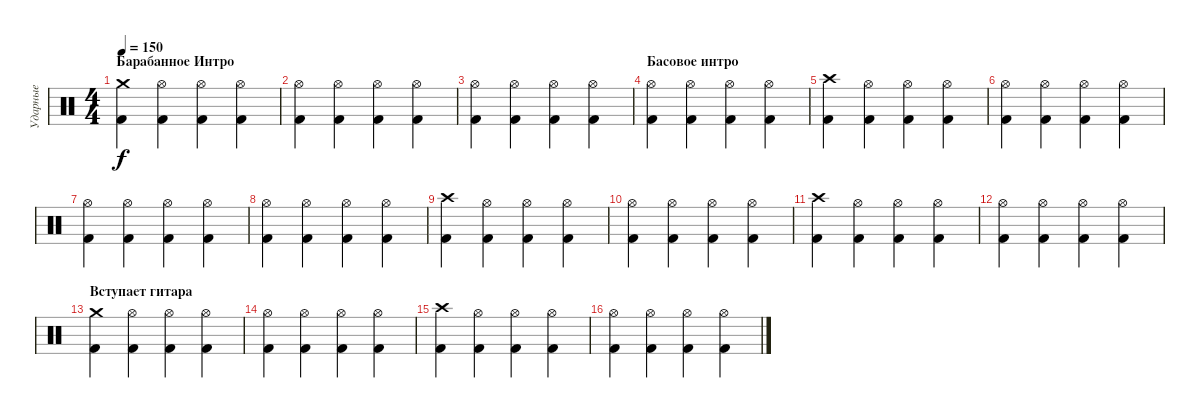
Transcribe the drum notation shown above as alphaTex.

\track ("Ударные" "Ударные") {instrument percussion}
\staff {score}
\articulation defaults
\ts (4 4)
\section ("" "Барабанное Интро")
\tempo 150
\clef neutral
\ks c
("Crash medium (hit)" "Kick (hit) 2").4{dy f} ("Hi-Hat (open)" "Kick (hit) 2").4 ("Hi-Hat (open)" "Kick (hit) 2").4 ("Hi-Hat (open)" "Kick (hit) 2").4 |
("Hi-Hat (open)" "Kick (hit) 2").4 ("Hi-Hat (open)" "Kick (hit) 2").4 ("Hi-Hat (open)" "Kick (hit) 2").4 ("Hi-Hat (open)" "Kick (hit) 2").4 |
("Hi-Hat (open)" "Kick (hit) 2").4 ("Hi-Hat (open)" "Kick (hit) 2").4 ("Hi-Hat (open)" "Kick (hit) 2").4 ("Hi-Hat (open)" "Kick (hit) 2").4 |
\section ("" "Басовое интро")
("Hi-Hat (open)" "Kick (hit) 2").4 ("Hi-Hat (open)" "Kick (hit) 2").4 ("Hi-Hat (open)" "Kick (hit) 2").4 ("Hi-Hat (open)" "Kick (hit) 2").4 |
("Crash high (hit)" "Kick (hit) 2").4 ("Hi-Hat (open)" "Kick (hit) 2").4 ("Hi-Hat (open)" "Kick (hit) 2").4 ("Hi-Hat (open)" "Kick (hit) 2").4 |
("Hi-Hat (open)" "Kick (hit) 2").4 ("Hi-Hat (open)" "Kick (hit) 2").4 ("Hi-Hat (open)" "Kick (hit) 2").4 ("Hi-Hat (open)" "Kick (hit) 2").4 |
("Hi-Hat (open)" "Kick (hit) 2").4 ("Hi-Hat (open)" "Kick (hit) 2").4 ("Hi-Hat (open)" "Kick (hit) 2").4 ("Hi-Hat (open)" "Kick (hit) 2").4 |
("Hi-Hat (open)" "Kick (hit) 2").4 ("Hi-Hat (open)" "Kick (hit) 2").4 ("Hi-Hat (open)" "Kick (hit) 2").4 ("Hi-Hat (open)" "Kick (hit) 2").4 |
("Crash high (hit)" "Kick (hit) 2").4 ("Hi-Hat (open)" "Kick (hit) 2").4 ("Hi-Hat (open)" "Kick (hit) 2").4 ("Hi-Hat (open)" "Kick (hit) 2").4 |
("Hi-Hat (open)" "Kick (hit) 2").4 ("Hi-Hat (open)" "Kick (hit) 2").4 ("Hi-Hat (open)" "Kick (hit) 2").4 ("Hi-Hat (open)" "Kick (hit) 2").4 |
("Crash high (hit)" "Kick (hit) 2").4 ("Hi-Hat (open)" "Kick (hit) 2").4 ("Hi-Hat (open)" "Kick (hit) 2").4 ("Hi-Hat (open)" "Kick (hit) 2").4 |
("Hi-Hat (open)" "Kick (hit) 2").4 ("Hi-Hat (open)" "Kick (hit) 2").4 ("Hi-Hat (open)" "Kick (hit) 2").4 ("Hi-Hat (open)" "Kick (hit) 2").4 |
\section ("" "Вступает гитара")
("Crash medium (hit)" "Kick (hit) 2").4 ("Hi-Hat (open)" "Kick (hit) 2").4 ("Hi-Hat (open)" "Kick (hit) 2").4 ("Hi-Hat (open)" "Kick (hit) 2").4 |
("Hi-Hat (open)" "Kick (hit) 2").4 ("Hi-Hat (open)" "Kick (hit) 2").4 ("Hi-Hat (open)" "Kick (hit) 2").4 ("Hi-Hat (open)" "Kick (hit) 2").4 |
("Crash high (hit)" "Kick (hit) 2").4 ("Hi-Hat (open)" "Kick (hit) 2").4 ("Hi-Hat (open)" "Kick (hit) 2").4 ("Hi-Hat (open)" "Kick (hit) 2").4 |
("Hi-Hat (open)" "Kick (hit) 2").4 ("Hi-Hat (open)" "Kick (hit) 2").4 ("Hi-Hat (open)" "Kick (hit) 2").4 ("Hi-Hat (open)" "Kick (hit) 2").4
